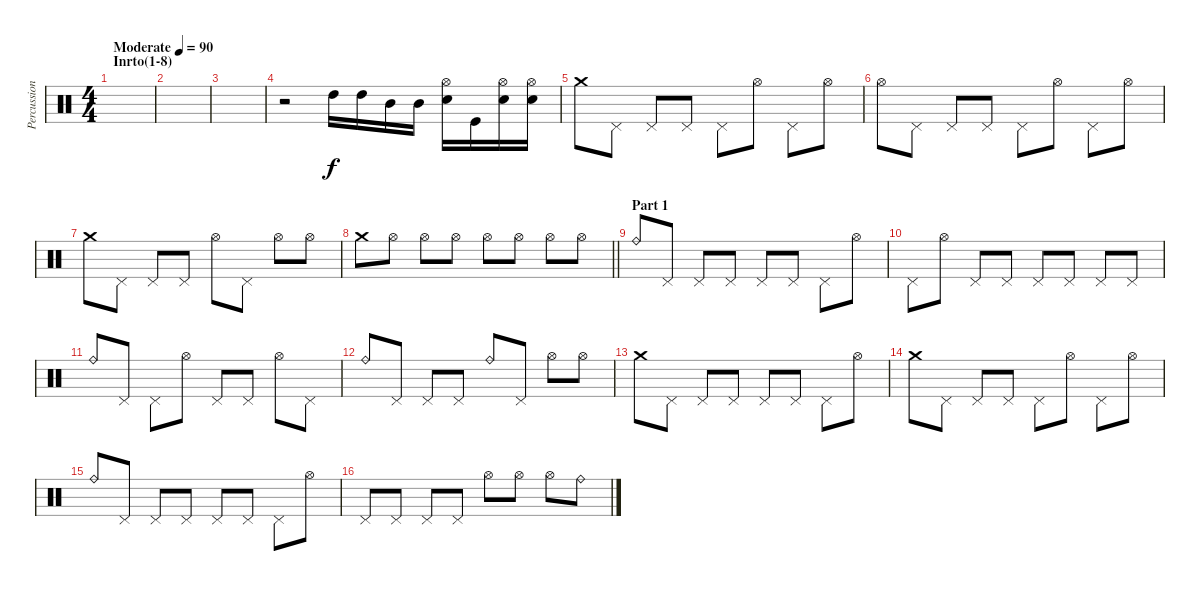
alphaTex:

\track ("Percussion" "Percussion") {instrument percussion}
\staff
\articulation defaults
\ts (4 4)
\section ("" "Inrto(1-8)")
\tempo (90 "Moderate")
\clef neutral
\ks c
|
|
|
r.2 "High Tom (hit)".16 "High Tom (hit)".16 "Mid Tom (hit)".16 "Mid Tom (hit)".16 ("Hi-Hat (open)" "Electric Snare (hit)").16 "Kick (hit)".16 ("Hi-Hat (open)" "Electric Snare (hit)").16 ("Hi-Hat (open)" "Electric Snare (hit)").16 |
"Crash medium (hit)".8 "Pedal Hi-Hat (hit)".8 "Pedal Hi-Hat (hit)".8 "Pedal Hi-Hat (hit)".8 "Pedal Hi-Hat (hit)".8 "Hi-Hat (open)".8 "Pedal Hi-Hat (hit)".8 "Hi-Hat (open)".8 |
"Hi-Hat (open)".8 "Pedal Hi-Hat (hit)".8 "Pedal Hi-Hat (hit)".8 "Pedal Hi-Hat (hit)".8 "Pedal Hi-Hat (hit)".8 "Hi-Hat (open)".8 "Pedal Hi-Hat (hit)".8 "Hi-Hat (open)".8 |
"Crash medium (hit)".8 "Pedal Hi-Hat (hit)".8 "Pedal Hi-Hat (hit)".8 "Pedal Hi-Hat (hit)".8 "Hi-Hat (open)".8 "Pedal Hi-Hat (hit)".8 "Hi-Hat (open)".8 "Hi-Hat (open)".8 |
\barLineRight lightlight "Crash medium (hit)".8 "Hi-Hat (open)".8 "Hi-Hat (open)".8 "Hi-Hat (open)".8 "Hi-Hat (open)".8 "Hi-Hat (open)".8 "Hi-Hat (open)".8 "Hi-Hat (open)".8
|
\section ("" "Part 1")
"Ride (bell)".8 "Pedal Hi-Hat (hit)".8 "Pedal Hi-Hat (hit)".8 "Pedal Hi-Hat (hit)".8 "Pedal Hi-Hat (hit)".8 "Pedal Hi-Hat (hit)".8 "Pedal Hi-Hat (hit)".8 "Hi-Hat (open)".8 |
"Pedal Hi-Hat (hit)".8 "Hi-Hat (open)".8 "Pedal Hi-Hat (hit)".8 "Pedal Hi-Hat (hit)".8 "Pedal Hi-Hat (hit)".8 "Pedal Hi-Hat (hit)".8 "Pedal Hi-Hat (hit)".8 "Pedal Hi-Hat (hit)".8 |
"Ride (bell)".8 "Pedal Hi-Hat (hit)".8 "Pedal Hi-Hat (hit)".8 "Hi-Hat (open)".8 "Pedal Hi-Hat (hit)".8 "Pedal Hi-Hat (hit)".8 "Hi-Hat (open)".8 "Pedal Hi-Hat (hit)".8 |
"Ride (bell)".8 "Pedal Hi-Hat (hit)".8 "Pedal Hi-Hat (hit)".8 "Pedal Hi-Hat (hit)".8 "Ride (bell)".8 "Pedal Hi-Hat (hit)".8 "Hi-Hat (open)".8 "Hi-Hat (open)".8 |
"Crash medium (hit)".8 "Pedal Hi-Hat (hit)".8 "Pedal Hi-Hat (hit)".8 "Pedal Hi-Hat (hit)".8 "Pedal Hi-Hat (hit)".8 "Pedal Hi-Hat (hit)".8 "Pedal Hi-Hat (hit)".8 "Hi-Hat (open)".8 |
"Crash medium (hit)".8 "Pedal Hi-Hat (hit)".8 "Pedal Hi-Hat (hit)".8 "Pedal Hi-Hat (hit)".8 "Pedal Hi-Hat (hit)".8 "Hi-Hat (open)".8 "Pedal Hi-Hat (hit)".8 "Hi-Hat (open)".8 |
"Ride (bell)".8 "Pedal Hi-Hat (hit)".8 "Pedal Hi-Hat (hit)".8 "Pedal Hi-Hat (hit)".8 "Pedal Hi-Hat (hit)".8 "Pedal Hi-Hat (hit)".8 "Pedal Hi-Hat (hit)".8 "Hi-Hat (open)".8 |
"Pedal Hi-Hat (hit)".8 "Pedal Hi-Hat (hit)".8 "Pedal Hi-Hat (hit)".8 "Pedal Hi-Hat (hit)".8 "Hi-Hat (open)".8 "Hi-Hat (open)".8 "Hi-Hat (open)".8 "Ride (bell)".8
